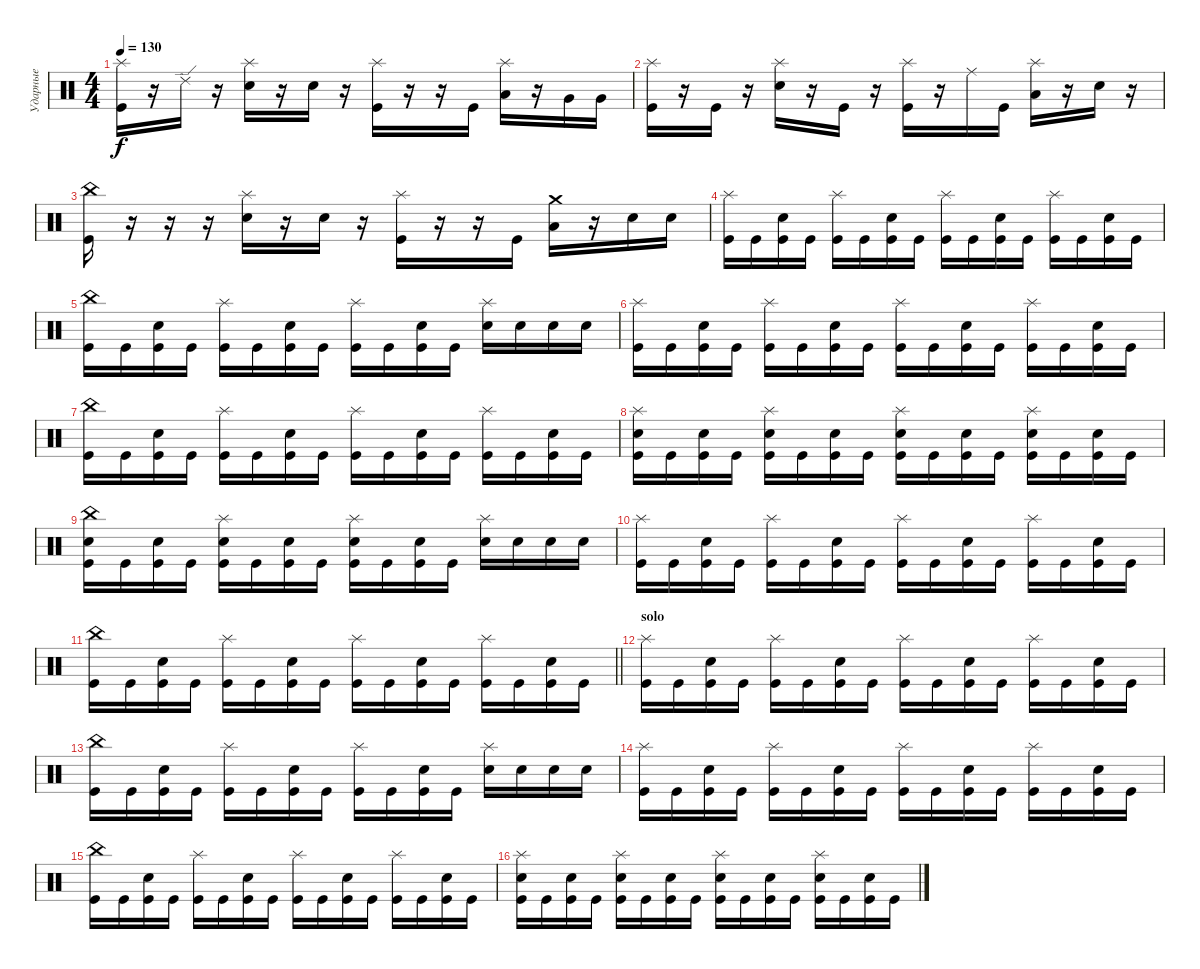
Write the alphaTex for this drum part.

\track ("Ударные" "Ударные") {instrument percussion}
\staff {score}
\articulation defaults
\ts (4 4)
\tempo 130
\clef neutral
\ks c
("Splash (hit)" "Kick (hit)").16{dy f} r.16 "Ride (edge) 2".16 r.16 ("Splash (hit)" "Electric Snare (hit)").16 r.16 "Electric Snare (hit)".16 r.16 ("Splash (hit)" "Kick (hit)").16 r.16 r.16 "Kick (hit)".16 ("Splash (hit)" "Low Floor Tom (hit)").16 r.16 "Very Low Tom (hit)".16 "Very Low Tom (hit)".16 |
("Splash (hit)" "Kick (hit)").16 r.16 "Kick (hit)".16 r.16 ("Splash (hit)" "Electric Snare (hit)").16 r.16 "Kick (hit)".16 r.16 ("Splash (hit)" "Kick (hit)").16 r.16 "Ride (middle)".16 "Kick (hit)".16 ("Splash (hit)" "Low Floor Tom (hit)").16 r.16 "Electric Snare (hit)".16 r.16 |
("China (hit)" "Kick (hit)").16 r.16 r.16 r.16 ("Splash (hit)" "Electric Snare (hit)").16 r.16 "Electric Snare (hit)".16 r.16 ("Splash (hit)" "Kick (hit)").16 r.16 r.16 "Kick (hit)".16 ("Crash medium (hit)" "Low Floor Tom (hit)").16 r.16 "Electric Snare (hit)".16 "Electric Snare (hit)".16 |
("Splash (hit)" "Kick (hit)").16 "Kick (hit)".16 ("Electric Snare (hit)" "Kick (hit)").16 "Kick (hit)".16 ("Splash (hit)" "Kick (hit)").16 "Kick (hit)".16 ("Electric Snare (hit)" "Kick (hit)").16 "Kick (hit)".16 ("Splash (hit)" "Kick (hit)").16 "Kick (hit)".16 ("Electric Snare (hit)" "Kick (hit)").16 "Kick (hit)".16 ("Splash (hit)" "Kick (hit)").16 "Kick (hit)".16 ("Electric Snare (hit)" "Kick (hit)").16 "Kick (hit)".16 |
("China (hit)" "Kick (hit)").16 "Kick (hit)".16 ("Electric Snare (hit)" "Kick (hit)").16 "Kick (hit)".16 ("Splash (hit)" "Kick (hit)").16 "Kick (hit)".16 ("Electric Snare (hit)" "Kick (hit)").16 "Kick (hit)".16 ("Splash (hit)" "Kick (hit)").16 "Kick (hit)".16 ("Electric Snare (hit)" "Kick (hit)").16 "Kick (hit)".16 ("Splash (hit)" "Electric Snare (hit)").16 "Electric Snare (hit)".16 "Electric Snare (hit)".16 "Electric Snare (hit)".16 |
("Splash (hit)" "Kick (hit)").16 "Kick (hit)".16 ("Electric Snare (hit)" "Kick (hit)").16 "Kick (hit)".16 ("Splash (hit)" "Kick (hit)").16 "Kick (hit)".16 ("Electric Snare (hit)" "Kick (hit)").16 "Kick (hit)".16 ("Splash (hit)" "Kick (hit)").16 "Kick (hit)".16 ("Electric Snare (hit)" "Kick (hit)").16 "Kick (hit)".16 ("Splash (hit)" "Kick (hit)").16 "Kick (hit)".16 ("Electric Snare (hit)" "Kick (hit)").16 "Kick (hit)".16 |
("China (hit)" "Kick (hit)").16 "Kick (hit)".16 ("Electric Snare (hit)" "Kick (hit)").16 "Kick (hit)".16 ("Splash (hit)" "Kick (hit)").16 "Kick (hit)".16 ("Electric Snare (hit)" "Kick (hit)").16 "Kick (hit)".16 ("Splash (hit)" "Kick (hit)").16 "Kick (hit)".16 ("Electric Snare (hit)" "Kick (hit)").16 "Kick (hit)".16 ("Splash (hit)" "Kick (hit)").16 "Kick (hit)".16 ("Electric Snare (hit)" "Kick (hit)").16 "Kick (hit)".16 |
("Splash (hit)" "Electric Snare (hit)" "Kick (hit)").16 "Kick (hit)".16 ("Electric Snare (hit)" "Kick (hit)").16 "Kick (hit)".16 ("Splash (hit)" "Electric Snare (hit)" "Kick (hit)").16 "Kick (hit)".16 ("Electric Snare (hit)" "Kick (hit)").16 "Kick (hit)".16 ("Splash (hit)" "Electric Snare (hit)" "Kick (hit)").16 "Kick (hit)".16 ("Electric Snare (hit)" "Kick (hit)").16 "Kick (hit)".16 ("Splash (hit)" "Electric Snare (hit)" "Kick (hit)").16 "Kick (hit)".16 ("Electric Snare (hit)" "Kick (hit)").16 "Kick (hit)".16 |
("China (hit)" "Electric Snare (hit)" "Kick (hit)").16 "Kick (hit)".16 ("Electric Snare (hit)" "Kick (hit)").16 "Kick (hit)".16 ("Splash (hit)" "Electric Snare (hit)" "Kick (hit)").16 "Kick (hit)".16 ("Electric Snare (hit)" "Kick (hit)").16 "Kick (hit)".16 ("Splash (hit)" "Electric Snare (hit)" "Kick (hit)").16 "Kick (hit)".16 ("Electric Snare (hit)" "Kick (hit)").16 "Kick (hit)".16 ("Splash (hit)" "Electric Snare (hit)").16 "Electric Snare (hit)".16 "Electric Snare (hit)".16 "Electric Snare (hit)".16 |
("Splash (hit)" "Kick (hit)").16 "Kick (hit)".16 ("Electric Snare (hit)" "Kick (hit)").16 "Kick (hit)".16 ("Splash (hit)" "Kick (hit)").16 "Kick (hit)".16 ("Electric Snare (hit)" "Kick (hit)").16 "Kick (hit)".16 ("Splash (hit)" "Kick (hit)").16 "Kick (hit)".16 ("Electric Snare (hit)" "Kick (hit)").16 "Kick (hit)".16 ("Splash (hit)" "Kick (hit)").16 "Kick (hit)".16 ("Electric Snare (hit)" "Kick (hit)").16 "Kick (hit)".16 |
\barLineRight lightlight
("China (hit)" "Kick (hit)").16 "Kick (hit)".16 ("Electric Snare (hit)" "Kick (hit)").16 "Kick (hit)".16 ("Splash (hit)" "Kick (hit)").16 "Kick (hit)".16 ("Electric Snare (hit)" "Kick (hit)").16 "Kick (hit)".16 ("Splash (hit)" "Kick (hit)").16 "Kick (hit)".16 ("Electric Snare (hit)" "Kick (hit)").16 "Kick (hit)".16 ("Splash (hit)" "Kick (hit)").16 "Kick (hit)".16 ("Electric Snare (hit)" "Kick (hit)").16 "Kick (hit)".16 |
\section ("" "solo")
("Splash (hit)" "Kick (hit)").16 "Kick (hit)".16 ("Electric Snare (hit)" "Kick (hit)").16 "Kick (hit)".16 ("Splash (hit)" "Kick (hit)").16 "Kick (hit)".16 ("Electric Snare (hit)" "Kick (hit)").16 "Kick (hit)".16 ("Splash (hit)" "Kick (hit)").16 "Kick (hit)".16 ("Electric Snare (hit)" "Kick (hit)").16 "Kick (hit)".16 ("Splash (hit)" "Kick (hit)").16 "Kick (hit)".16 ("Electric Snare (hit)" "Kick (hit)").16 "Kick (hit)".16 |
("China (hit)" "Kick (hit)").16 "Kick (hit)".16 ("Electric Snare (hit)" "Kick (hit)").16 "Kick (hit)".16 ("Splash (hit)" "Kick (hit)").16 "Kick (hit)".16 ("Electric Snare (hit)" "Kick (hit)").16 "Kick (hit)".16 ("Splash (hit)" "Kick (hit)").16 "Kick (hit)".16 ("Electric Snare (hit)" "Kick (hit)").16 "Kick (hit)".16 ("Splash (hit)" "Electric Snare (hit)").16 "Electric Snare (hit)".16 "Electric Snare (hit)".16 "Electric Snare (hit)".16 |
("Splash (hit)" "Kick (hit)").16 "Kick (hit)".16 ("Electric Snare (hit)" "Kick (hit)").16 "Kick (hit)".16 ("Splash (hit)" "Kick (hit)").16 "Kick (hit)".16 ("Electric Snare (hit)" "Kick (hit)").16 "Kick (hit)".16 ("Splash (hit)" "Kick (hit)").16 "Kick (hit)".16 ("Electric Snare (hit)" "Kick (hit)").16 "Kick (hit)".16 ("Splash (hit)" "Kick (hit)").16 "Kick (hit)".16 ("Electric Snare (hit)" "Kick (hit)").16 "Kick (hit)".16 |
("China (hit)" "Kick (hit)").16 "Kick (hit)".16 ("Electric Snare (hit)" "Kick (hit)").16 "Kick (hit)".16 ("Splash (hit)" "Kick (hit)").16 "Kick (hit)".16 ("Electric Snare (hit)" "Kick (hit)").16 "Kick (hit)".16 ("Splash (hit)" "Kick (hit)").16 "Kick (hit)".16 ("Electric Snare (hit)" "Kick (hit)").16 "Kick (hit)".16 ("Splash (hit)" "Kick (hit)").16 "Kick (hit)".16 ("Electric Snare (hit)" "Kick (hit)").16 "Kick (hit)".16 |
("Splash (hit)" "Electric Snare (hit)" "Kick (hit)").16 "Kick (hit)".16 ("Electric Snare (hit)" "Kick (hit)").16 "Kick (hit)".16 ("Splash (hit)" "Electric Snare (hit)" "Kick (hit)").16 "Kick (hit)".16 ("Electric Snare (hit)" "Kick (hit)").16 "Kick (hit)".16 ("Splash (hit)" "Electric Snare (hit)" "Kick (hit)").16 "Kick (hit)".16 ("Electric Snare (hit)" "Kick (hit)").16 "Kick (hit)".16 ("Splash (hit)" "Electric Snare (hit)" "Kick (hit)").16 "Kick (hit)".16 ("Electric Snare (hit)" "Kick (hit)").16 "Kick (hit)".16
